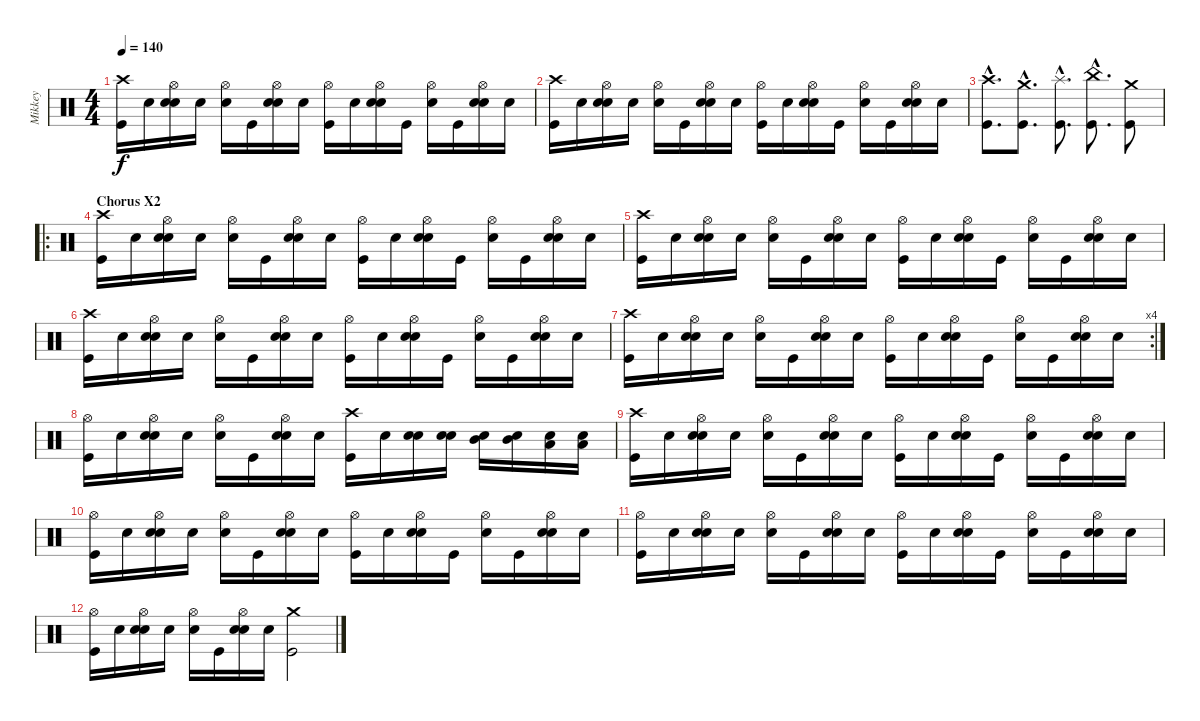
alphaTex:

\track ("Mikkey" "Mikkey") {instrument percussion}
\staff {score}
\articulation defaults
\ts (4 4)
\tempo 140
\clef neutral
\ks c
("Crash high (hit)" "Kick (hit)").16{dy f} "Snare (hit)".16 ("Hi-Hat (open)" "Electric Snare (hit)" "Snare (hit)").16 "Snare (hit)".16 ("Hi-Hat (open)" "Snare (hit)").16 "Kick (hit)".16 ("Hi-Hat (open)" "Electric Snare (hit)" "Snare (hit)").16 "Snare (hit)".16 ("Hi-Hat (open)" "Kick (hit)").16 "Snare (hit)".16 ("Hi-Hat (open)" "Electric Snare (hit)" "Snare (hit)").16 "Kick (hit)".16 ("Hi-Hat (open)" "Snare (hit)").16 "Kick (hit)".16 ("Hi-Hat (open)" "Electric Snare (hit)" "Snare (hit)").16 "Snare (hit)".16 |
("Crash high (hit)" "Kick (hit)").16 "Snare (hit)".16 ("Hi-Hat (open)" "Electric Snare (hit)" "Snare (hit)").16 "Snare (hit)".16 ("Hi-Hat (open)" "Snare (hit)").16 "Kick (hit)".16 ("Hi-Hat (open)" "Electric Snare (hit)" "Snare (hit)").16 "Snare (hit)".16 ("Hi-Hat (open)" "Kick (hit)").16 "Snare (hit)".16 ("Hi-Hat (open)" "Electric Snare (hit)" "Snare (hit)").16 "Kick (hit)".16 ("Hi-Hat (open)" "Snare (hit)").16 "Kick (hit)".16 ("Hi-Hat (open)" "Electric Snare (hit)" "Snare (hit)").16 "Snare (hit)".16 |
("Crash high (hit)"{hac} "Kick (hit)"{hac}).8{d} ("Crash medium (hit)"{hac} "Kick (hit)"{hac}).8{d} ("Splash (hit)"{hac} "Kick (hit)"{hac}).8{d} ("China (hit)"{hac} "Kick (hit)"{hac}).8{d} ("Crash medium (hit)" "Kick (hit)").8 |
\ro
\section ("" "Chorus X2")
("Crash high (hit)" "Kick (hit)").16 "Snare (hit)".16 ("Hi-Hat (open)" "Electric Snare (hit)" "Snare (hit)").16 "Snare (hit)".16 ("Hi-Hat (open)" "Snare (hit)").16 "Kick (hit)".16 ("Hi-Hat (open)" "Electric Snare (hit)" "Snare (hit)").16 "Snare (hit)".16 ("Hi-Hat (open)" "Kick (hit)").16 "Snare (hit)".16 ("Hi-Hat (open)" "Electric Snare (hit)" "Snare (hit)").16 "Kick (hit)".16 ("Hi-Hat (open)" "Snare (hit)").16 "Kick (hit)".16 ("Hi-Hat (open)" "Electric Snare (hit)" "Snare (hit)").16 "Snare (hit)".16 |
("Crash high (hit)" "Kick (hit)").16 "Snare (hit)".16 ("Hi-Hat (open)" "Electric Snare (hit)" "Snare (hit)").16 "Snare (hit)".16 ("Hi-Hat (open)" "Snare (hit)").16 "Kick (hit)".16 ("Hi-Hat (open)" "Electric Snare (hit)" "Snare (hit)").16 "Snare (hit)".16 ("Hi-Hat (open)" "Kick (hit)").16 "Snare (hit)".16 ("Hi-Hat (open)" "Electric Snare (hit)" "Snare (hit)").16 "Kick (hit)".16 ("Hi-Hat (open)" "Snare (hit)").16 "Kick (hit)".16 ("Hi-Hat (open)" "Electric Snare (hit)" "Snare (hit)").16 "Snare (hit)".16 |
("Crash high (hit)" "Kick (hit)").16 "Snare (hit)".16 ("Hi-Hat (open)" "Electric Snare (hit)" "Snare (hit)").16 "Snare (hit)".16 ("Hi-Hat (open)" "Snare (hit)").16 "Kick (hit)".16 ("Hi-Hat (open)" "Electric Snare (hit)" "Snare (hit)").16 "Snare (hit)".16 ("Hi-Hat (open)" "Kick (hit)").16 "Snare (hit)".16 ("Hi-Hat (open)" "Electric Snare (hit)" "Snare (hit)").16 "Kick (hit)".16 ("Hi-Hat (open)" "Snare (hit)").16 "Kick (hit)".16 ("Hi-Hat (open)" "Electric Snare (hit)" "Snare (hit)").16 "Snare (hit)".16 |
\rc 4
("Crash high (hit)" "Kick (hit)").16 "Snare (hit)".16 ("Hi-Hat (open)" "Electric Snare (hit)" "Snare (hit)").16 "Snare (hit)".16 ("Hi-Hat (open)" "Snare (hit)").16 "Kick (hit)".16 ("Hi-Hat (open)" "Electric Snare (hit)" "Snare (hit)").16 "Snare (hit)".16 ("Hi-Hat (open)" "Kick (hit)").16 "Snare (hit)".16 ("Hi-Hat (open)" "Electric Snare (hit)" "Snare (hit)").16 "Kick (hit)".16 ("Hi-Hat (open)" "Snare (hit)").16 "Kick (hit)".16 ("Hi-Hat (open)" "Electric Snare (hit)" "Snare (hit)").16 "Snare (hit)".16 |
("Hi-Hat (open)" "Kick (hit)").16 "Snare (hit)".16 ("Hi-Hat (open)" "Electric Snare (hit)" "Snare (hit)").16 "Snare (hit)".16 ("Hi-Hat (open)" "Snare (hit)").16 "Kick (hit)".16 ("Hi-Hat (open)" "Electric Snare (hit)" "Snare (hit)").16 "Snare (hit)".16 ("Crash high (hit)" "Kick (hit)").16 "Snare (hit)".16 ("Electric Snare (hit)" "Snare (hit)").16 ("Electric Snare (hit)" "Snare (hit)").16 ("Mid Tom (hit)" "Snare (hit)").16 ("Mid Tom (hit)" "Snare (hit)").16 ("Low Tom (hit)" "Snare (hit)").16 ("Low Tom (hit)" "Snare (hit)").16 |
("Crash high (hit)" "Kick (hit)").16 "Snare (hit)".16 ("Hi-Hat (open)" "Electric Snare (hit)" "Snare (hit)").16 "Snare (hit)".16 ("Hi-Hat (open)" "Snare (hit)").16 "Kick (hit)".16 ("Hi-Hat (open)" "Electric Snare (hit)" "Snare (hit)").16 "Snare (hit)".16 ("Hi-Hat (open)" "Kick (hit)").16 "Snare (hit)".16 ("Hi-Hat (open)" "Electric Snare (hit)" "Snare (hit)").16 "Kick (hit)".16 ("Hi-Hat (open)" "Snare (hit)").16 "Kick (hit)".16 ("Hi-Hat (open)" "Electric Snare (hit)" "Snare (hit)").16 "Snare (hit)".16 |
("Hi-Hat (open)" "Kick (hit)").16 "Snare (hit)".16 ("Hi-Hat (open)" "Electric Snare (hit)" "Snare (hit)").16 "Snare (hit)".16 ("Hi-Hat (open)" "Snare (hit)").16 "Kick (hit)".16 ("Hi-Hat (open)" "Electric Snare (hit)" "Snare (hit)").16 "Snare (hit)".16 ("Hi-Hat (open)" "Kick (hit)").16 "Snare (hit)".16 ("Hi-Hat (open)" "Electric Snare (hit)" "Snare (hit)").16 "Kick (hit)".16 ("Hi-Hat (open)" "Snare (hit)").16 "Kick (hit)".16 ("Hi-Hat (open)" "Electric Snare (hit)" "Snare (hit)").16 "Snare (hit)".16 |
("Hi-Hat (open)" "Kick (hit)").16 "Snare (hit)".16 ("Hi-Hat (open)" "Electric Snare (hit)" "Snare (hit)").16 "Snare (hit)".16 ("Hi-Hat (open)" "Snare (hit)").16 "Kick (hit)".16 ("Hi-Hat (open)" "Electric Snare (hit)" "Snare (hit)").16 "Snare (hit)".16 ("Hi-Hat (open)" "Kick (hit)").16 "Snare (hit)".16 ("Hi-Hat (open)" "Electric Snare (hit)" "Snare (hit)").16 "Kick (hit)".16 ("Hi-Hat (open)" "Snare (hit)").16 "Kick (hit)".16 ("Hi-Hat (open)" "Electric Snare (hit)" "Snare (hit)").16 "Snare (hit)".16 |
("Hi-Hat (open)" "Kick (hit)").16 "Snare (hit)".16 ("Hi-Hat (open)" "Electric Snare (hit)" "Snare (hit)").16 "Snare (hit)".16 ("Hi-Hat (open)" "Snare (hit)").16 "Kick (hit)".16 ("Hi-Hat (open)" "Electric Snare (hit)" "Snare (hit)").16 "Snare (hit)".16 ("Crash medium (hit)" "Kick (hit)").2
